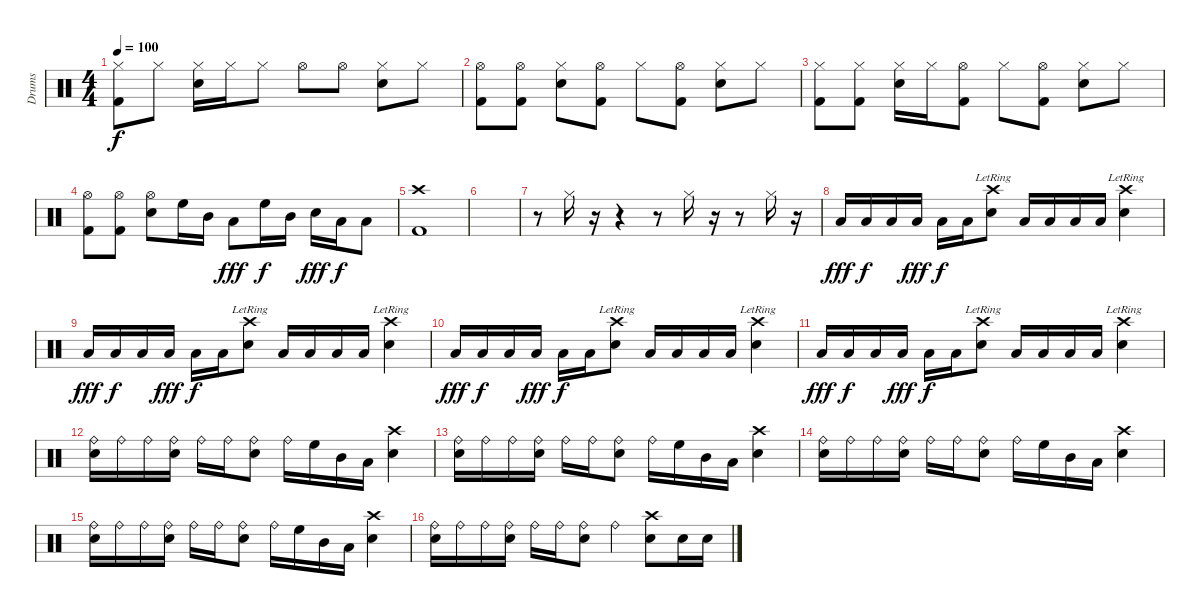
\track ("Drums" "Drums") {instrument percussion}
\staff {score}
\articulation defaults
\ts (4 4)
\tempo 100
\clef neutral
\ks c
("Hi-Hat (closed)" "Kick (hit) 2").8{dy f} "Hi-Hat (closed)".8 ("Hi-Hat (closed)" "Snare (hit) 2").16 "Hi-Hat (closed)".16 "Hi-Hat (closed)".8 "Hi-Hat (open)".8 "Hi-Hat (open)".8 ("Hi-Hat (closed)" "Snare (hit) 2").8 "Hi-Hat (closed)".8 |
("Hi-Hat (open)" "Kick (hit) 2").8 ("Hi-Hat (open)" "Kick (hit) 2").8 ("Hi-Hat (closed)" "Snare (hit) 2").8 ("Hi-Hat (open)" "Kick (hit) 2").8 "Hi-Hat (closed)".8 ("Hi-Hat (open)" "Kick (hit) 2").8 ("Hi-Hat (closed)" "Snare (hit) 2").8 "Hi-Hat (closed)".8 |
("Hi-Hat (closed)" "Kick (hit) 2").8 ("Hi-Hat (closed)" "Kick (hit) 2").8 ("Hi-Hat (closed)" "Snare (hit) 2").16 "Hi-Hat (closed)".16 ("Hi-Hat (open)" "Kick (hit) 2").8 "Hi-Hat (closed)".8 ("Hi-Hat (open)" "Kick (hit) 2").8 ("Hi-Hat (closed)" "Snare (hit) 2").8 "Hi-Hat (closed)".8 |
("Hi-Hat (open)" "Kick (hit) 2").8 ("Hi-Hat (open)" "Kick (hit) 2").8 ("Hi-Hat (open)" "Snare (hit) 2").8 "High Floor Tom (hit)".16 "Mid Tom (hit)".16 "Low Floor Tom (hit)".8{dy fff} "High Floor Tom (hit)".16{dy f} "Mid Tom (hit)".16 "Snare (hit) 2".16{dy fff} "Low Floor Tom (hit)".16{dy f} "Low Floor Tom (hit)".8 |
("Crash high (hit)" "Kick (hit) 2").1 |
|
r.8 "Hi-Hat (closed)".16 r.16 r.4 r.8 "Hi-Hat (closed)".16 r.16 r.8 "Hi-Hat (closed)".16 r.16 |
"Low Floor Tom (hit)".16{dy fff} "Low Floor Tom (hit)".16{dy f} "Low Floor Tom (hit)".16 "Low Floor Tom (hit)".16{dy fff} "Low Floor Tom (hit)".16{dy f} "Low Floor Tom (hit)".16 ("Crash high (hit)"{lr} "Snare (hit) 2"{lr}).8 "Low Floor Tom (hit)".16 "Low Floor Tom (hit)".16 "Low Floor Tom (hit)".16 "Low Floor Tom (hit)".16 ("Crash high (hit)"{lr} "Snare (hit) 2"{lr}).4 |
"Low Floor Tom (hit)".16{dy fff} "Low Floor Tom (hit)".16{dy f} "Low Floor Tom (hit)".16 "Low Floor Tom (hit)".16{dy fff} "Low Floor Tom (hit)".16{dy f} "Low Floor Tom (hit)".16 ("Crash high (hit)"{lr} "Snare (hit) 2"{lr}).8 "Low Floor Tom (hit)".16 "Low Floor Tom (hit)".16 "Low Floor Tom (hit)".16 "Low Floor Tom (hit)".16 ("Crash high (hit)"{lr} "Snare (hit) 2"{lr}).4 |
"Low Floor Tom (hit)".16{dy fff} "Low Floor Tom (hit)".16{dy f} "Low Floor Tom (hit)".16 "Low Floor Tom (hit)".16{dy fff} "Low Floor Tom (hit)".16{dy f} "Low Floor Tom (hit)".16 ("Crash high (hit)"{lr} "Snare (hit) 2"{lr}).8 "Low Floor Tom (hit)".16 "Low Floor Tom (hit)".16 "Low Floor Tom (hit)".16 "Low Floor Tom (hit)".16 ("Crash high (hit)"{lr} "Snare (hit) 2"{lr}).4 |
"Low Floor Tom (hit)".16{dy fff} "Low Floor Tom (hit)".16{dy f} "Low Floor Tom (hit)".16 "Low Floor Tom (hit)".16{dy fff} "Low Floor Tom (hit)".16{dy f} "Low Floor Tom (hit)".16 ("Crash high (hit)"{lr} "Snare (hit) 2"{lr}).8 "Low Floor Tom (hit)".16 "Low Floor Tom (hit)".16 "Low Floor Tom (hit)".16 "Low Floor Tom (hit)".16 ("Crash high (hit)"{lr} "Snare (hit) 2"{lr}).4 |
("Ride (bell)" "Snare (hit) 2").16 "Ride (bell)".16 "Ride (bell)".16 ("Ride (bell)" "Snare (hit) 2").16 "Ride (bell)".16 "Ride (bell)".16 ("Ride (bell)" "Snare (hit) 2").8 "Ride (bell)".16 "High Floor Tom (hit)".16 "Mid Tom (hit)".16 "Low Floor Tom (hit)".16 ("Crash high (hit)" "Snare (hit) 2").4 |
("Ride (bell)" "Snare (hit) 2").16 "Ride (bell)".16 "Ride (bell)".16 ("Ride (bell)" "Snare (hit) 2").16 "Ride (bell)".16 "Ride (bell)".16 ("Ride (bell)" "Snare (hit) 2").8 "Ride (bell)".16 "High Floor Tom (hit)".16 "Mid Tom (hit)".16 "Low Floor Tom (hit)".16 ("Crash high (hit)" "Snare (hit) 2").4 |
("Ride (bell)" "Snare (hit) 2").16 "Ride (bell)".16 "Ride (bell)".16 ("Ride (bell)" "Snare (hit) 2").16 "Ride (bell)".16 "Ride (bell)".16 ("Ride (bell)" "Snare (hit) 2").8 "Ride (bell)".16 "High Floor Tom (hit)".16 "Mid Tom (hit)".16 "Low Floor Tom (hit)".16 ("Crash high (hit)" "Snare (hit) 2").4 |
("Ride (bell)" "Snare (hit) 2").16 "Ride (bell)".16 "Ride (bell)".16 ("Ride (bell)" "Snare (hit) 2").16 "Ride (bell)".16 "Ride (bell)".16 ("Ride (bell)" "Snare (hit) 2").8 "Ride (bell)".16 "High Floor Tom (hit)".16 "Mid Tom (hit)".16 "Low Floor Tom (hit)".16 ("Crash high (hit)" "Snare (hit) 2").4 |
("Ride (bell)" "Snare (hit) 2").16 "Ride (bell)".16 "Ride (bell)".16 ("Ride (bell)" "Snare (hit) 2").16 "Ride (bell)".16 "Ride (bell)".16 ("Ride (bell)" "Snare (hit) 2").8 "Ride (bell)".4 ("Crash high (hit)" "Snare (hit) 2").8 "Snare (hit) 2".16 "Snare (hit) 2".16
